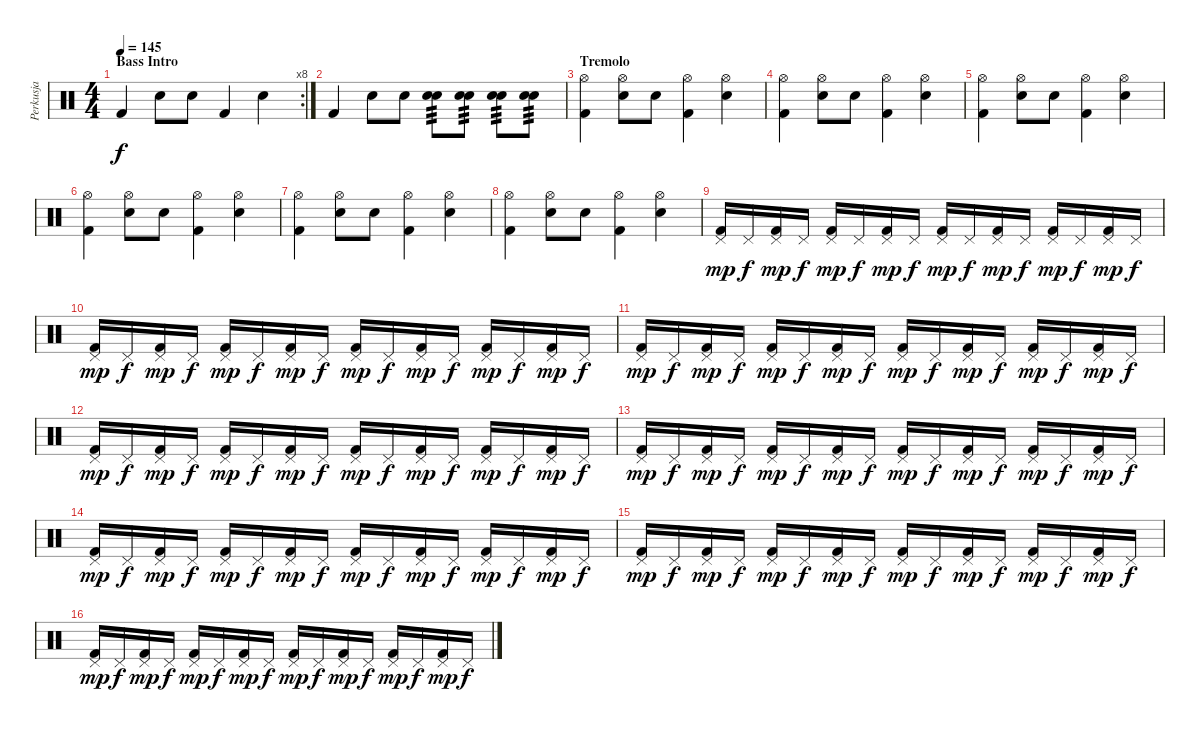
\track ("Perkusja" "Perkusja") {instrument percussion}
\staff {score}
\articulation defaults
\rc 8
\ts (4 4)
\section ("" "Bass Intro")
\tempo 145
\clef neutral
\ks c "Kick (hit) 2".4{dy f} "Electric Snare (hit)".8 "Electric Snare (hit)".8 "Kick (hit) 2".4 "Electric Snare (hit)".4
|
"Kick (hit) 2".4 "Electric Snare (hit)".8 "Electric Snare (hit)".8 ("Electric Snare (hit)" "Electric Snare (hit)").8{tp 3} ("Electric Snare (hit)" "Electric Snare (hit)").8{tp 3} ("Electric Snare (hit)" "Electric Snare (hit)").8{tp 3} ("Electric Snare (hit)" "Electric Snare (hit)").8{tp 3} |
\section ("" "Tremolo")
("Hi-Hat (open)" "Kick (hit) 2").4 ("Hi-Hat (open)" "Electric Snare (hit)").8 "Electric Snare (hit)".8 ("Hi-Hat (open)" "Kick (hit) 2").4 ("Hi-Hat (open)" "Electric Snare (hit)").4 |
("Hi-Hat (open)" "Kick (hit) 2").4 ("Hi-Hat (open)" "Electric Snare (hit)").8 "Electric Snare (hit)".8 ("Hi-Hat (open)" "Kick (hit) 2").4 ("Hi-Hat (open)" "Electric Snare (hit)").4 |
("Hi-Hat (open)" "Kick (hit) 2").4 ("Hi-Hat (open)" "Electric Snare (hit)").8 "Electric Snare (hit)".8 ("Hi-Hat (open)" "Kick (hit) 2").4 ("Hi-Hat (open)" "Electric Snare (hit)").4 |
("Hi-Hat (open)" "Kick (hit) 2").4 ("Hi-Hat (open)" "Electric Snare (hit)").8 "Electric Snare (hit)".8 ("Hi-Hat (open)" "Kick (hit) 2").4 ("Hi-Hat (open)" "Electric Snare (hit)").4 |
("Hi-Hat (open)" "Kick (hit) 2").4 ("Hi-Hat (open)" "Electric Snare (hit)").8 "Electric Snare (hit)".8 ("Hi-Hat (open)" "Kick (hit) 2").4 ("Hi-Hat (open)" "Electric Snare (hit)").4 |
("Hi-Hat (open)" "Kick (hit) 2").4 ("Hi-Hat (open)" "Electric Snare (hit)").8 "Electric Snare (hit)".8 ("Hi-Hat (open)" "Kick (hit) 2").4 ("Hi-Hat (open)" "Electric Snare (hit)").4 |
("Pedal Hi-Hat (hit)" "Kick (hit) 2").16{dy mp} "Pedal Hi-Hat (hit)".16{dy f} ("Pedal Hi-Hat (hit)" "Kick (hit) 2").16{dy mp} "Pedal Hi-Hat (hit)".16{dy f} ("Pedal Hi-Hat (hit)" "Kick (hit) 2").16{dy mp} "Pedal Hi-Hat (hit)".16{dy f} ("Pedal Hi-Hat (hit)" "Kick (hit) 2").16{dy mp} "Pedal Hi-Hat (hit)".16{dy f} ("Pedal Hi-Hat (hit)" "Kick (hit) 2").16{dy mp} "Pedal Hi-Hat (hit)".16{dy f} ("Pedal Hi-Hat (hit)" "Kick (hit) 2").16{dy mp} "Pedal Hi-Hat (hit)".16{dy f} ("Pedal Hi-Hat (hit)" "Kick (hit) 2").16{dy mp} "Pedal Hi-Hat (hit)".16{dy f} ("Pedal Hi-Hat (hit)" "Kick (hit) 2").16{dy mp} "Pedal Hi-Hat (hit)".16{dy f} |
("Pedal Hi-Hat (hit)" "Kick (hit) 2").16{dy mp} "Pedal Hi-Hat (hit)".16{dy f} ("Pedal Hi-Hat (hit)" "Kick (hit) 2").16{dy mp} "Pedal Hi-Hat (hit)".16{dy f} ("Pedal Hi-Hat (hit)" "Kick (hit) 2").16{dy mp} "Pedal Hi-Hat (hit)".16{dy f} ("Pedal Hi-Hat (hit)" "Kick (hit) 2").16{dy mp} "Pedal Hi-Hat (hit)".16{dy f} ("Pedal Hi-Hat (hit)" "Kick (hit) 2").16{dy mp} "Pedal Hi-Hat (hit)".16{dy f} ("Pedal Hi-Hat (hit)" "Kick (hit) 2").16{dy mp} "Pedal Hi-Hat (hit)".16{dy f} ("Pedal Hi-Hat (hit)" "Kick (hit) 2").16{dy mp} "Pedal Hi-Hat (hit)".16{dy f} ("Pedal Hi-Hat (hit)" "Kick (hit) 2").16{dy mp} "Pedal Hi-Hat (hit)".16{dy f} |
("Pedal Hi-Hat (hit)" "Kick (hit) 2").16{dy mp} "Pedal Hi-Hat (hit)".16{dy f} ("Pedal Hi-Hat (hit)" "Kick (hit) 2").16{dy mp} "Pedal Hi-Hat (hit)".16{dy f} ("Pedal Hi-Hat (hit)" "Kick (hit) 2").16{dy mp} "Pedal Hi-Hat (hit)".16{dy f} ("Pedal Hi-Hat (hit)" "Kick (hit) 2").16{dy mp} "Pedal Hi-Hat (hit)".16{dy f} ("Pedal Hi-Hat (hit)" "Kick (hit) 2").16{dy mp} "Pedal Hi-Hat (hit)".16{dy f} ("Pedal Hi-Hat (hit)" "Kick (hit) 2").16{dy mp} "Pedal Hi-Hat (hit)".16{dy f} ("Pedal Hi-Hat (hit)" "Kick (hit) 2").16{dy mp} "Pedal Hi-Hat (hit)".16{dy f} ("Pedal Hi-Hat (hit)" "Kick (hit) 2").16{dy mp} "Pedal Hi-Hat (hit)".16{dy f} |
("Pedal Hi-Hat (hit)" "Kick (hit) 2").16{dy mp} "Pedal Hi-Hat (hit)".16{dy f} ("Pedal Hi-Hat (hit)" "Kick (hit) 2").16{dy mp} "Pedal Hi-Hat (hit)".16{dy f} ("Pedal Hi-Hat (hit)" "Kick (hit) 2").16{dy mp} "Pedal Hi-Hat (hit)".16{dy f} ("Pedal Hi-Hat (hit)" "Kick (hit) 2").16{dy mp} "Pedal Hi-Hat (hit)".16{dy f} ("Pedal Hi-Hat (hit)" "Kick (hit) 2").16{dy mp} "Pedal Hi-Hat (hit)".16{dy f} ("Pedal Hi-Hat (hit)" "Kick (hit) 2").16{dy mp} "Pedal Hi-Hat (hit)".16{dy f} ("Pedal Hi-Hat (hit)" "Kick (hit) 2").16{dy mp} "Pedal Hi-Hat (hit)".16{dy f} ("Pedal Hi-Hat (hit)" "Kick (hit) 2").16{dy mp} "Pedal Hi-Hat (hit)".16{dy f} |
("Pedal Hi-Hat (hit)" "Kick (hit) 2").16{dy mp} "Pedal Hi-Hat (hit)".16{dy f} ("Pedal Hi-Hat (hit)" "Kick (hit) 2").16{dy mp} "Pedal Hi-Hat (hit)".16{dy f} ("Pedal Hi-Hat (hit)" "Kick (hit) 2").16{dy mp} "Pedal Hi-Hat (hit)".16{dy f} ("Pedal Hi-Hat (hit)" "Kick (hit) 2").16{dy mp} "Pedal Hi-Hat (hit)".16{dy f} ("Pedal Hi-Hat (hit)" "Kick (hit) 2").16{dy mp} "Pedal Hi-Hat (hit)".16{dy f} ("Pedal Hi-Hat (hit)" "Kick (hit) 2").16{dy mp} "Pedal Hi-Hat (hit)".16{dy f} ("Pedal Hi-Hat (hit)" "Kick (hit) 2").16{dy mp} "Pedal Hi-Hat (hit)".16{dy f} ("Pedal Hi-Hat (hit)" "Kick (hit) 2").16{dy mp} "Pedal Hi-Hat (hit)".16{dy f} |
("Pedal Hi-Hat (hit)" "Kick (hit) 2").16{dy mp} "Pedal Hi-Hat (hit)".16{dy f} ("Pedal Hi-Hat (hit)" "Kick (hit) 2").16{dy mp} "Pedal Hi-Hat (hit)".16{dy f} ("Pedal Hi-Hat (hit)" "Kick (hit) 2").16{dy mp} "Pedal Hi-Hat (hit)".16{dy f} ("Pedal Hi-Hat (hit)" "Kick (hit) 2").16{dy mp} "Pedal Hi-Hat (hit)".16{dy f} ("Pedal Hi-Hat (hit)" "Kick (hit) 2").16{dy mp} "Pedal Hi-Hat (hit)".16{dy f} ("Pedal Hi-Hat (hit)" "Kick (hit) 2").16{dy mp} "Pedal Hi-Hat (hit)".16{dy f} ("Pedal Hi-Hat (hit)" "Kick (hit) 2").16{dy mp} "Pedal Hi-Hat (hit)".16{dy f} ("Pedal Hi-Hat (hit)" "Kick (hit) 2").16{dy mp} "Pedal Hi-Hat (hit)".16{dy f} |
("Pedal Hi-Hat (hit)" "Kick (hit) 2").16{dy mp} "Pedal Hi-Hat (hit)".16{dy f} ("Pedal Hi-Hat (hit)" "Kick (hit) 2").16{dy mp} "Pedal Hi-Hat (hit)".16{dy f} ("Pedal Hi-Hat (hit)" "Kick (hit) 2").16{dy mp} "Pedal Hi-Hat (hit)".16{dy f} ("Pedal Hi-Hat (hit)" "Kick (hit) 2").16{dy mp} "Pedal Hi-Hat (hit)".16{dy f} ("Pedal Hi-Hat (hit)" "Kick (hit) 2").16{dy mp} "Pedal Hi-Hat (hit)".16{dy f} ("Pedal Hi-Hat (hit)" "Kick (hit) 2").16{dy mp} "Pedal Hi-Hat (hit)".16{dy f} ("Pedal Hi-Hat (hit)" "Kick (hit) 2").16{dy mp} "Pedal Hi-Hat (hit)".16{dy f} ("Pedal Hi-Hat (hit)" "Kick (hit) 2").16{dy mp} "Pedal Hi-Hat (hit)".16{dy f} |
("Pedal Hi-Hat (hit)" "Kick (hit) 2").16{dy mp} "Pedal Hi-Hat (hit)".16{dy f} ("Pedal Hi-Hat (hit)" "Kick (hit) 2").16{dy mp} "Pedal Hi-Hat (hit)".16{dy f} ("Pedal Hi-Hat (hit)" "Kick (hit) 2").16{dy mp} "Pedal Hi-Hat (hit)".16{dy f} ("Pedal Hi-Hat (hit)" "Kick (hit) 2").16{dy mp} "Pedal Hi-Hat (hit)".16{dy f} ("Pedal Hi-Hat (hit)" "Kick (hit) 2").16{dy mp} "Pedal Hi-Hat (hit)".16{dy f} ("Pedal Hi-Hat (hit)" "Kick (hit) 2").16{dy mp} "Pedal Hi-Hat (hit)".16{dy f} ("Pedal Hi-Hat (hit)" "Kick (hit) 2").16{dy mp} "Pedal Hi-Hat (hit)".16{dy f} ("Pedal Hi-Hat (hit)" "Kick (hit) 2").16{dy mp} "Pedal Hi-Hat (hit)".16{dy f}
